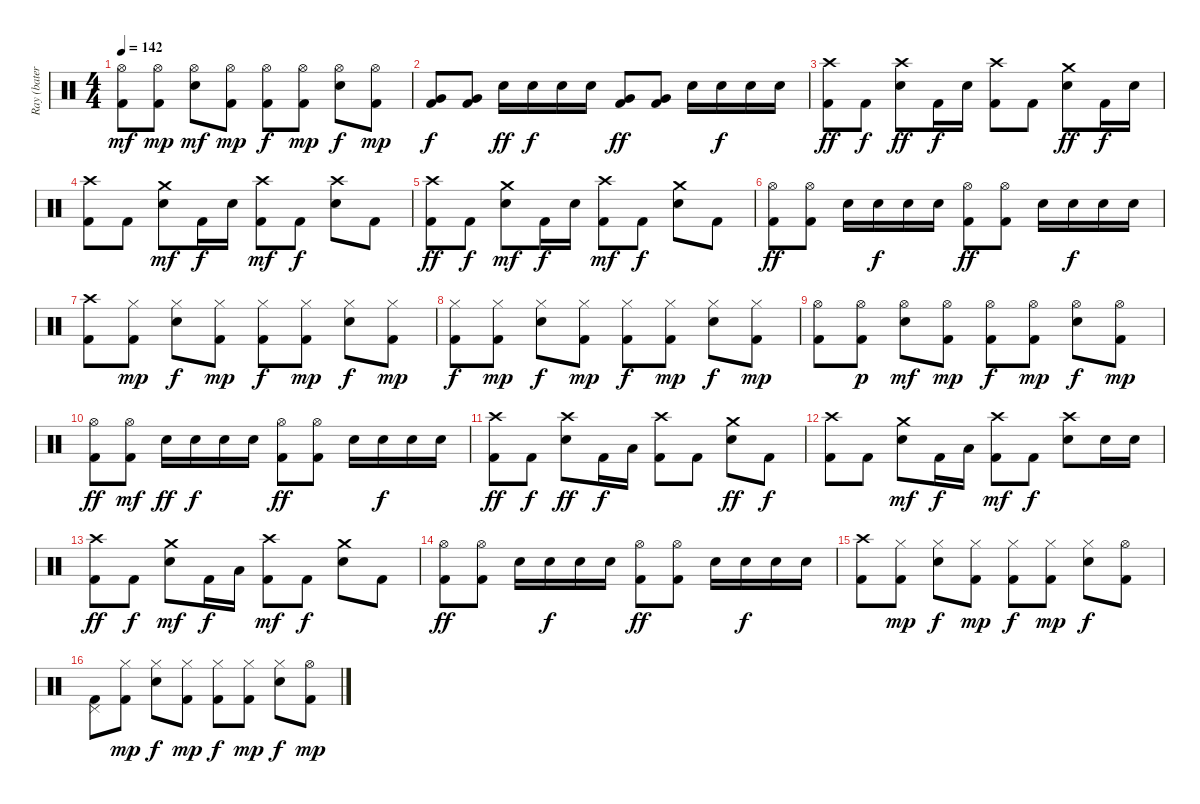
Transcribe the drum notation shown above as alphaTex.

\track ("Ray (batería)" "Ray (bater") {instrument percussion}
\staff {score}
\articulation defaults
\ts (4 4)
\tempo 142
\clef neutral
\ks c
("Hi-Hat (open)" "Kick (hit) 2").8{dy mf} ("Hi-Hat (open)" "Kick (hit) 2").8{dy mp} ("Hi-Hat (open)" "Snare (hit) 2").8{dy mf} ("Hi-Hat (open)" "Kick (hit) 2").8{dy mp} ("Hi-Hat (open)" "Kick (hit) 2").8{dy f} ("Hi-Hat (open)" "Kick (hit) 2").8{dy mp} ("Hi-Hat (open)" "Snare (hit) 2").8{dy f} ("Hi-Hat (open)" "Kick (hit) 2").8{dy mp} |
("Very Low Tom (hit)" "Kick (hit) 2").8{dy f} ("Very Low Tom (hit)" "Kick (hit) 2").8 "Snare (hit) 2".16{dy ff} "Snare (hit) 2".16{dy f} "Snare (hit) 2".16 "Snare (hit) 2".16 ("Very Low Tom (hit)" "Kick (hit) 2").8{dy ff} ("Very Low Tom (hit)" "Kick (hit) 2").8 "Snare (hit) 2".16 "Snare (hit) 2".16{dy f} "Snare (hit) 2".16 "Snare (hit) 2".16 |
("Crash high (hit)" "Kick (hit) 2").8{dy ff} "Kick (hit) 2".8{dy f} ("Crash high (hit)" "Snare (hit) 2").8{dy ff} "Kick (hit) 2".16{dy f} "Snare (hit) 2".16 ("Crash high (hit)" "Kick (hit) 2").8 "Kick (hit) 2".8 ("Crash medium (hit)" "Snare (hit) 2").8{dy ff} "Kick (hit) 2".16{dy f} "Snare (hit) 2".16 |
("Crash high (hit)" "Kick (hit) 2").8 "Kick (hit) 2".8 ("Crash medium (hit)" "Snare (hit) 2").8{dy mf} "Kick (hit) 2".16{dy f} "Snare (hit) 2".16 ("Crash high (hit)" "Kick (hit) 2").8{dy mf} "Kick (hit) 2".8{dy f} ("Crash high (hit)" "Snare (hit) 2").8 "Kick (hit) 2".8 |
("Crash high (hit)" "Kick (hit) 2").8{dy ff} "Kick (hit) 2".8{dy f} ("Crash medium (hit)" "Snare (hit) 2").8{dy mf} "Kick (hit) 2".16{dy f} "Snare (hit) 2".16 ("Crash high (hit)" "Kick (hit) 2").8{dy mf} "Kick (hit) 2".8{dy f} ("Crash medium (hit)" "Snare (hit) 2").8 "Kick (hit) 2".8 |
("Hi-Hat (open)" "Kick (hit) 2").8{dy ff} ("Hi-Hat (open)" "Kick (hit) 2").8 "Snare (hit) 2".16 "Snare (hit) 2".16{dy f} "Snare (hit) 2".16 "Snare (hit) 2".16 ("Hi-Hat (open)" "Kick (hit) 2").8{dy ff} ("Hi-Hat (open)" "Kick (hit) 2").8 "Snare (hit) 2".16 "Snare (hit) 2".16{dy f} "Snare (hit) 2".16 "Snare (hit) 2".16 |
("Crash high (hit)" "Kick (hit) 2").8 ("Hi-Hat (closed)" "Kick (hit) 2").8{dy mp} ("Hi-Hat (closed)" "Snare (hit) 2").8{dy f} ("Hi-Hat (closed)" "Kick (hit) 2").8{dy mp} ("Hi-Hat (closed)" "Kick (hit) 2").8{dy f} ("Hi-Hat (closed)" "Kick (hit) 2").8{dy mp} ("Hi-Hat (closed)" "Snare (hit) 2").8{dy f} ("Hi-Hat (closed)" "Kick (hit) 2").8{dy mp} |
("Hi-Hat (closed)" "Kick (hit) 2").8{dy f} ("Hi-Hat (closed)" "Kick (hit) 2").8{dy mp} ("Hi-Hat (closed)" "Snare (hit) 2").8{dy f} ("Hi-Hat (closed)" "Kick (hit) 2").8{dy mp} ("Hi-Hat (closed)" "Kick (hit) 2").8{dy f} ("Hi-Hat (closed)" "Kick (hit) 2").8{dy mp} ("Hi-Hat (closed)" "Snare (hit) 2").8{dy f} ("Hi-Hat (closed)" "Kick (hit) 2").8{dy mp} |
("Hi-Hat (open)" "Kick (hit) 2").8 ("Hi-Hat (open)" "Kick (hit) 2").8{dy p} ("Hi-Hat (open)" "Snare (hit) 2").8{dy mf} ("Hi-Hat (open)" "Kick (hit) 2").8{dy mp} ("Hi-Hat (open)" "Kick (hit) 2").8{dy f} ("Hi-Hat (open)" "Kick (hit) 2").8{dy mp} ("Hi-Hat (open)" "Snare (hit) 2").8{dy f} ("Hi-Hat (open)" "Kick (hit) 2").8{dy mp} |
("Hi-Hat (open)" "Kick (hit) 2").8{dy ff} ("Hi-Hat (open)" "Kick (hit) 2").8{dy mf} "Snare (hit) 2".16{dy ff} "Snare (hit) 2".16{dy f} "Snare (hit) 2".16 "Snare (hit) 2".16 ("Hi-Hat (open)" "Kick (hit) 2").8{dy ff} ("Hi-Hat (open)" "Kick (hit) 2").8 "Snare (hit) 2".16 "Snare (hit) 2".16{dy f} "Snare (hit) 2".16 "Snare (hit) 2".16 |
("Crash high (hit)" "Kick (hit) 2").8{dy ff} "Kick (hit) 2".8{dy f} ("Crash high (hit)" "Snare (hit) 2").8{dy ff} "Kick (hit) 2".16{dy f} "Low Tom (hit)".16 ("Crash high (hit)" "Kick (hit) 2").8 "Kick (hit) 2".8 ("Crash medium (hit)" "Snare (hit) 2").8{dy ff} "Kick (hit) 2".8{dy f} |
("Crash high (hit)" "Kick (hit) 2").8 "Kick (hit) 2".8 ("Crash medium (hit)" "Snare (hit) 2").8{dy mf} "Kick (hit) 2".16{dy f} "Low Tom (hit)".16 ("Crash high (hit)" "Kick (hit) 2").8{dy mf} "Kick (hit) 2".8{dy f} ("Crash high (hit)" "Snare (hit) 2").8 "Snare (hit) 2".16 "Snare (hit) 2".16 |
("Crash high (hit)" "Kick (hit) 2").8{dy ff} "Kick (hit) 2".8{dy f} ("Crash medium (hit)" "Snare (hit) 2").8{dy mf} "Kick (hit) 2".16{dy f} "Low Tom (hit)".16 ("Crash high (hit)" "Kick (hit) 2").8{dy mf} "Kick (hit) 2".8{dy f} ("Crash medium (hit)" "Snare (hit) 2").8 "Kick (hit) 2".8 |
("Hi-Hat (open)" "Kick (hit) 2").8{dy ff} ("Hi-Hat (open)" "Kick (hit) 2").8 "Snare (hit) 2".16 "Snare (hit) 2".16{dy f} "Snare (hit) 2".16 "Snare (hit) 2".16 ("Hi-Hat (open)" "Kick (hit) 2").8{dy ff} ("Hi-Hat (open)" "Kick (hit) 2").8 "Snare (hit) 2".16 "Snare (hit) 2".16{dy f} "Snare (hit) 2".16 "Snare (hit) 2".16 |
("Crash high (hit)" "Kick (hit) 2").8 ("Hi-Hat (closed)" "Kick (hit) 2").8{dy mp} ("Hi-Hat (closed)" "Snare (hit) 2").8{dy f} ("Hi-Hat (closed)" "Kick (hit) 2").8{dy mp} ("Hi-Hat (closed)" "Kick (hit) 2").8{dy f} ("Hi-Hat (closed)" "Kick (hit) 2").8{dy mp} ("Hi-Hat (closed)" "Snare (hit) 2").8{dy f} ("Hi-Hat (open)" "Kick (hit) 2").8 |
("Pedal Hi-Hat (hit)" "Kick (hit) 2").8 ("Hi-Hat (closed)" "Kick (hit) 2").8{dy mp} ("Hi-Hat (closed)" "Snare (hit) 2").8{dy f} ("Hi-Hat (closed)" "Kick (hit) 2").8{dy mp} ("Hi-Hat (closed)" "Kick (hit) 2").8{dy f} ("Hi-Hat (closed)" "Kick (hit) 2").8{dy mp} ("Hi-Hat (closed)" "Snare (hit) 2").8{dy f} ("Hi-Hat (open)" "Kick (hit) 2").8{dy mp}
